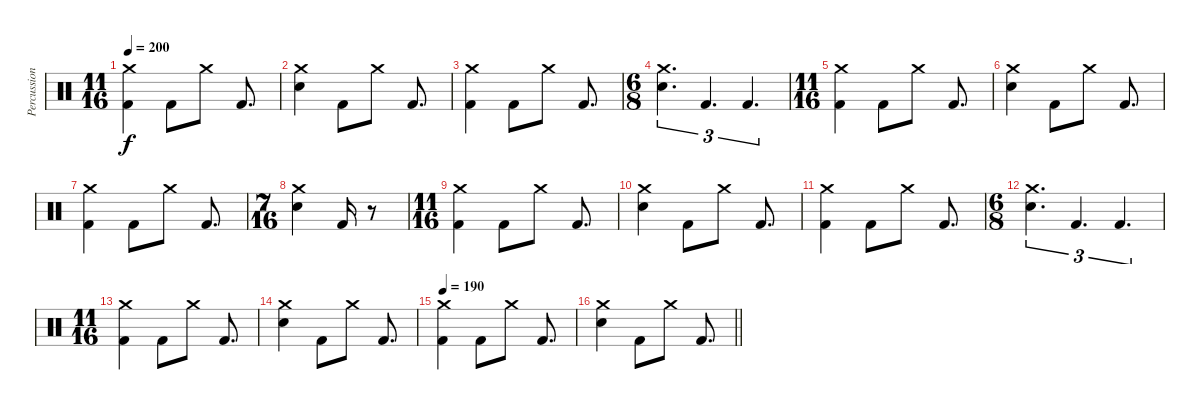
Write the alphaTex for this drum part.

\track ("Percussion" "Percussion") {instrument percussion}
\staff {score}
\articulation defaults
\ts (11 16)
\tempo 200
\clef neutral
\ks c
("Crash medium (hit)" "Kick (hit) 2").4{dy f volume 14} "Kick (hit) 2".8 "Crash medium (hit)".8 "Kick (hit) 2".8{d} |
("Crash medium (hit)" "Electric Snare (hit)").4 "Kick (hit) 2".8 "Crash medium (hit)".8 "Kick (hit) 2".8{d} |
("Crash medium (hit)" "Kick (hit) 2").4 "Kick (hit) 2".8 "Crash medium (hit)".8 "Kick (hit) 2".8{d} |
\ts (6 8)
("Crash medium (hit)" "Electric Snare (hit)").4{d tu (3 2)} "Kick (hit) 2".4{d tu (3 2)} "Kick (hit) 2".4{d tu (3 2)} |
\ts (11 16)
("Crash medium (hit)" "Kick (hit) 2").4 "Kick (hit) 2".8 "Crash medium (hit)".8 "Kick (hit) 2".8{d} |
("Crash medium (hit)" "Electric Snare (hit)").4 "Kick (hit) 2".8 "Crash medium (hit)".8 "Kick (hit) 2".8{d} |
("Crash medium (hit)" "Kick (hit) 2").4 "Kick (hit) 2".8 "Crash medium (hit)".8 "Kick (hit) 2".8{d} |
\ts (7 16)
("Crash medium (hit)" "Electric Snare (hit)").4 "Kick (hit) 2".16 r.8{volume 0} |
\ts (11 16)
("Crash medium (hit)" "Kick (hit) 2").4{volume 14} "Kick (hit) 2".8 "Crash medium (hit)".8 "Kick (hit) 2".8{d} |
("Crash medium (hit)" "Electric Snare (hit)").4 "Kick (hit) 2".8 "Crash medium (hit)".8 "Kick (hit) 2".8{d} |
("Crash medium (hit)" "Kick (hit) 2").4 "Kick (hit) 2".8 "Crash medium (hit)".8 "Kick (hit) 2".8{d} |
\ts (6 8)
("Crash medium (hit)" "Electric Snare (hit)").4{d tu (3 2)} "Kick (hit) 2".4{d tu (3 2)} "Kick (hit) 2".4{d tu (3 2)} |
\ts (11 16)
("Crash medium (hit)" "Kick (hit) 2").4 "Kick (hit) 2".8 "Crash medium (hit)".8 "Kick (hit) 2".8{d} |
("Crash medium (hit)" "Electric Snare (hit)").4 "Kick (hit) 2".8 "Crash medium (hit)".8 "Kick (hit) 2".8{d} |
\tempo 190
("Crash medium (hit)" "Kick (hit) 2").4 "Kick (hit) 2".8 "Crash medium (hit)".8 "Kick (hit) 2".8{d} |
\barLineRight lightlight
("Crash medium (hit)" "Electric Snare (hit)").4 "Kick (hit) 2".8 "Crash medium (hit)".8 "Kick (hit) 2".8{d}
